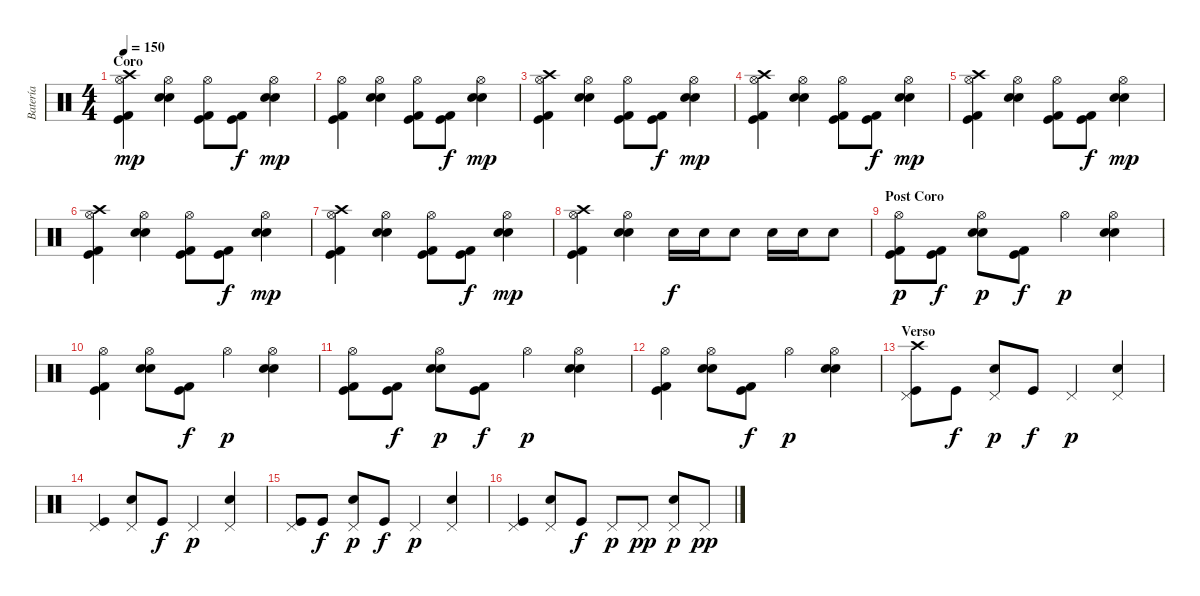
\track ("Batería" "Batería") {instrument percussion}
\staff {score}
\articulation defaults
\ts (4 4)
\section ("" "Coro")
\tempo 150
\clef neutral
\ks c
("Crash high (hit)" "Hi-Hat (open)" "Kick (hit)" "Kick (hit) 2").4{dy mp} ("Hi-Hat (open)" "Snare (hit) 2" "Electric Snare (hit)").4 ("Hi-Hat (open)" "Kick (hit)" "Kick (hit) 2").8 ("Kick (hit) 2" "Kick (hit)").8{dy f} ("Hi-Hat (open)" "Snare (hit) 2" "Electric Snare (hit)").4{dy mp} |
("Hi-Hat (open)" "Kick (hit)" "Kick (hit) 2").4 ("Hi-Hat (open)" "Snare (hit) 2" "Electric Snare (hit)").4 ("Hi-Hat (open)" "Kick (hit)" "Kick (hit) 2").8 ("Kick (hit) 2" "Kick (hit)").8{dy f} ("Hi-Hat (open)" "Snare (hit) 2" "Electric Snare (hit)").4{dy mp} |
("Crash high (hit)" "Hi-Hat (open)" "Kick (hit)" "Kick (hit) 2").4 ("Hi-Hat (open)" "Snare (hit) 2" "Electric Snare (hit)").4 ("Hi-Hat (open)" "Kick (hit)" "Kick (hit) 2").8 ("Kick (hit) 2" "Kick (hit)").8{dy f} ("Hi-Hat (open)" "Snare (hit) 2" "Electric Snare (hit)").4{dy mp} |
("Crash high (hit)" "Hi-Hat (open)" "Kick (hit)" "Kick (hit) 2").4 ("Hi-Hat (open)" "Snare (hit) 2" "Electric Snare (hit)").4 ("Hi-Hat (open)" "Kick (hit)" "Kick (hit) 2").8 ("Kick (hit) 2" "Kick (hit)").8{dy f} ("Hi-Hat (open)" "Snare (hit) 2" "Electric Snare (hit)").4{dy mp} |
("Crash high (hit)" "Hi-Hat (open)" "Kick (hit)" "Kick (hit) 2").4 ("Hi-Hat (open)" "Snare (hit) 2" "Electric Snare (hit)").4 ("Hi-Hat (open)" "Kick (hit)" "Kick (hit) 2").8 ("Kick (hit) 2" "Kick (hit)").8{dy f} ("Hi-Hat (open)" "Snare (hit) 2" "Electric Snare (hit)").4{dy mp} |
("Crash high (hit)" "Hi-Hat (open)" "Kick (hit)" "Kick (hit) 2").4 ("Hi-Hat (open)" "Snare (hit) 2" "Electric Snare (hit)").4 ("Hi-Hat (open)" "Kick (hit)" "Kick (hit) 2").8 ("Kick (hit) 2" "Kick (hit)").8{dy f} ("Hi-Hat (open)" "Snare (hit) 2" "Electric Snare (hit)").4{dy mp} |
("Crash high (hit)" "Hi-Hat (open)" "Kick (hit)" "Kick (hit) 2").4 ("Hi-Hat (open)" "Snare (hit) 2" "Electric Snare (hit)").4 ("Hi-Hat (open)" "Kick (hit)" "Kick (hit) 2").8 ("Kick (hit)" "Kick (hit) 2").8{dy f} ("Hi-Hat (open)" "Snare (hit) 2" "Electric Snare (hit)").4{dy mp} |
("Crash high (hit)" "Hi-Hat (open)" "Kick (hit)" "Kick (hit) 2").4 ("Hi-Hat (open)" "Snare (hit) 2" "Electric Snare (hit)").4 "Electric Snare (hit)".16{dy f} "Electric Snare (hit)".16 "Electric Snare (hit)".8 "Electric Snare (hit)".16 "Electric Snare (hit)".16 "Electric Snare (hit)".8 |
\section ("" "Post Coro")
("Kick (hit)" "Kick (hit) 2" "Hi-Hat (open)").8{dy p} ("Kick (hit)" "Kick (hit) 2").8{dy f} ("Electric Snare (hit)" "Snare (hit) 2" "Hi-Hat (open)").8{dy p} ("Kick (hit)" "Kick (hit) 2").8{dy f} "Hi-Hat (open)".4{dy p} ("Electric Snare (hit)" "Snare (hit) 2" "Hi-Hat (open)").4 |
("Kick (hit)" "Kick (hit) 2" "Hi-Hat (open)").4 ("Snare (hit) 2" "Electric Snare (hit)" "Hi-Hat (open)").8 ("Kick (hit)" "Kick (hit) 2").8{dy f} "Hi-Hat (open)".4{dy p} ("Electric Snare (hit)" "Snare (hit) 2" "Hi-Hat (open)").4 |
("Kick (hit)" "Kick (hit) 2" "Hi-Hat (open)").8 ("Kick (hit)" "Kick (hit) 2").8{dy f} ("Electric Snare (hit)" "Snare (hit) 2" "Hi-Hat (open)").8{dy p} ("Kick (hit)" "Kick (hit) 2").8{dy f} "Hi-Hat (open)".4{dy p} ("Electric Snare (hit)" "Snare (hit) 2" "Hi-Hat (open)").4 |
("Kick (hit)" "Kick (hit) 2" "Hi-Hat (open)").4 ("Snare (hit) 2" "Electric Snare (hit)" "Hi-Hat (open)").8 ("Kick (hit)" "Kick (hit) 2").8{dy f} "Hi-Hat (open)".4{dy p} ("Electric Snare (hit)" "Snare (hit) 2" "Hi-Hat (open)").4 |
\section ("" "Verso")
("Kick (hit)" "Crash high (hit)" "Pedal Hi-Hat (hit)").8 "Kick (hit)".8{dy f} ("Electric Snare (hit)" "Pedal Hi-Hat (hit)").8{dy p} "Kick (hit)".8{dy f} "Pedal Hi-Hat (hit)".4{dy p} ("Electric Snare (hit)" "Pedal Hi-Hat (hit)").4 |
("Kick (hit)" "Pedal Hi-Hat (hit)").4 ("Snare (hit) 2" "Pedal Hi-Hat (hit)").8 "Kick (hit)".8{dy f} "Pedal Hi-Hat (hit)".4{dy p} ("Electric Snare (hit)" "Pedal Hi-Hat (hit)").4 |
("Kick (hit)" "Pedal Hi-Hat (hit)").8 "Kick (hit)".8{dy f} ("Electric Snare (hit)" "Pedal Hi-Hat (hit)").8{dy p} "Kick (hit)".8{dy f} "Pedal Hi-Hat (hit)".4{dy p} ("Electric Snare (hit)" "Pedal Hi-Hat (hit)").4 |
("Kick (hit)" "Pedal Hi-Hat (hit)").4 ("Snare (hit) 2" "Pedal Hi-Hat (hit)").8 "Kick (hit)".8{dy f} "Pedal Hi-Hat (hit)".8{dy p} "Pedal Hi-Hat (hit)".8{dy pp} ("Electric Snare (hit)" "Pedal Hi-Hat (hit)").8{dy p} "Pedal Hi-Hat (hit)".8{dy pp}
